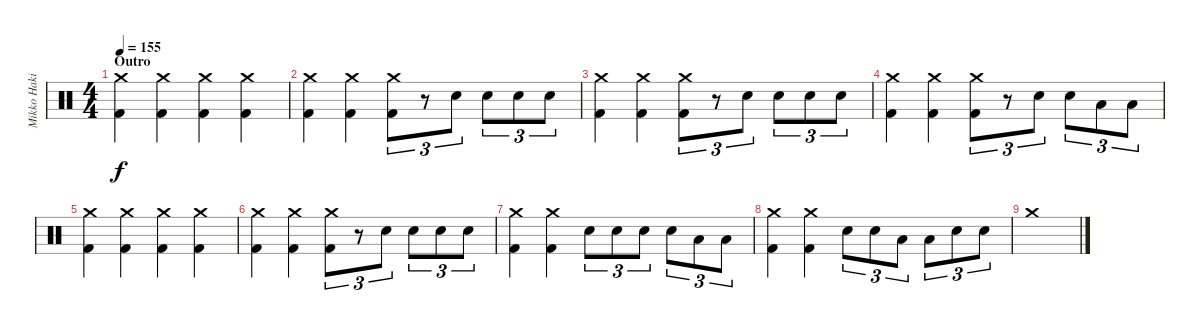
\track ("Mikko Hakila - Drums" "Mikko Haki") {instrument percussion}
\staff {score}
\articulation defaults
\ts (4 4)
\section ("" "Outro")
\tempo 155
\clef neutral
\ks c
("Crash medium (hit)" "Kick (hit) 2").4{dy f} ("Crash medium (hit)" "Kick (hit) 2").4 ("Crash medium (hit)" "Kick (hit) 2").4 ("Crash medium (hit)" "Kick (hit) 2").4 |
("Crash medium (hit)" "Kick (hit) 2").4 ("Crash medium (hit)" "Kick (hit) 2").4 ("Crash medium (hit)" "Kick (hit) 2").8{tu (3 2)} r.8{tu (3 2)} "Electric Snare (hit)".8{tu (3 2)} "Electric Snare (hit)".8{tu (3 2)} "Electric Snare (hit)".8{tu (3 2)} "Electric Snare (hit)".8{tu (3 2)} |
("Crash medium (hit)" "Kick (hit) 2").4 ("Crash medium (hit)" "Kick (hit) 2").4 ("Crash medium (hit)" "Kick (hit) 2").8{tu (3 2)} r.8{tu (3 2)} "Electric Snare (hit)".8{tu (3 2)} "Electric Snare (hit)".8{tu (3 2)} "Electric Snare (hit)".8{tu (3 2)} "Electric Snare (hit)".8{tu (3 2)} |
("Crash medium (hit)" "Kick (hit) 2").4 ("Crash medium (hit)" "Kick (hit) 2").4 ("Crash medium (hit)" "Kick (hit) 2").8{tu (3 2)} r.8{tu (3 2)} "Electric Snare (hit)".8{tu (3 2)} "Electric Snare (hit)".8{tu (3 2)} "Low Tom (hit)".8{tu (3 2)} "Low Tom (hit)".8{tu (3 2)} |
("Crash medium (hit)" "Kick (hit) 2").4 ("Crash medium (hit)" "Kick (hit) 2").4 ("Crash medium (hit)" "Kick (hit) 2").4 ("Crash medium (hit)" "Kick (hit) 2").4 |
("Crash medium (hit)" "Kick (hit) 2").4 ("Crash medium (hit)" "Kick (hit) 2").4 ("Crash medium (hit)" "Kick (hit) 2").8{tu (3 2)} r.8{tu (3 2)} "Electric Snare (hit)".8{tu (3 2)} "Electric Snare (hit)".8{tu (3 2)} "Electric Snare (hit)".8{tu (3 2)} "Electric Snare (hit)".8{tu (3 2)} |
("Crash medium (hit)" "Kick (hit) 2").4 ("Crash medium (hit)" "Kick (hit) 2").4 "Electric Snare (hit)".8{tu (3 2)} "Electric Snare (hit)".8{tu (3 2)} "Electric Snare (hit)".8{tu (3 2)} "Electric Snare (hit)".8{tu (3 2)} "Low Tom (hit)".8{tu (3 2)} "Low Tom (hit)".8{tu (3 2)} |
("Crash medium (hit)" "Kick (hit) 2").4 ("Crash medium (hit)" "Kick (hit) 2").4 "Electric Snare (hit)".8{tu (3 2)} "Electric Snare (hit)".8{tu (3 2)} "Low Tom (hit)".8{tu (3 2)} "Low Tom (hit)".8{tu (3 2)} "Electric Snare (hit)".8{tu (3 2)} "Electric Snare (hit)".8{tu (3 2)} |
"Crash medium (hit)".1
